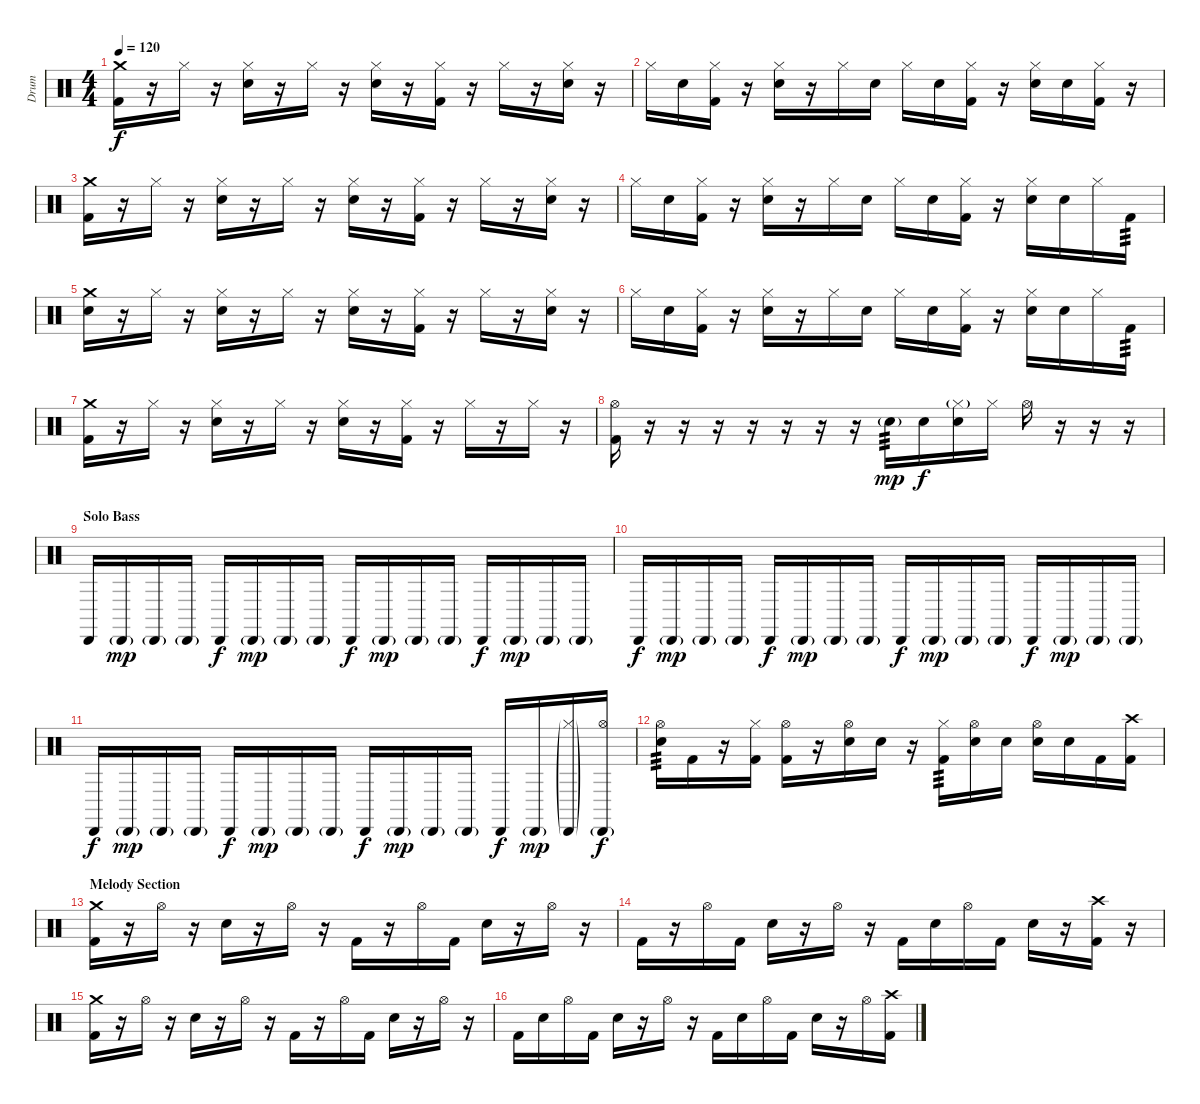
\track ("Drum" "Drum") {instrument percussion}
\staff {score}
\articulation defaults
\ts (4 4)
\tempo 120
\clef neutral
\ks c
("Crash medium (hit)" "Kick (hit) 2").16{dy f} r.16 "Hi-Hat (closed)".16 r.16 ("Hi-Hat (closed)" "Snare (hit) 2").16 r.16 "Hi-Hat (closed)".16 r.16 ("Hi-Hat (closed)" "Snare (hit) 2").16 r.16 ("Hi-Hat (closed)" "Kick (hit) 2").16 r.16 "Hi-Hat (closed)".16 r.16 ("Hi-Hat (closed)" "Snare (hit) 2").16 r.16 |
"Hi-Hat (closed)".16 "Snare (hit) 2".16 ("Hi-Hat (closed)" "Kick (hit) 2").16 r.16 ("Hi-Hat (closed)" "Snare (hit) 2").16 r.16 "Hi-Hat (closed)".16 "Snare (hit) 2".16 "Hi-Hat (closed)".16 "Snare (hit) 2".16 ("Hi-Hat (closed)" "Kick (hit) 2").16 r.16 ("Hi-Hat (closed)" "Snare (hit) 2").16 "Snare (hit) 2".16 ("Hi-Hat (closed)" "Kick (hit) 2").16 r.16 |
("Crash medium (hit)" "Kick (hit) 2").16 r.16 "Hi-Hat (closed)".16 r.16 ("Hi-Hat (closed)" "Snare (hit) 2").16 r.16 "Hi-Hat (closed)".16 r.16 ("Hi-Hat (closed)" "Snare (hit) 2").16 r.16 ("Hi-Hat (closed)" "Kick (hit) 2").16 r.16 "Hi-Hat (closed)".16 r.16 ("Hi-Hat (closed)" "Snare (hit) 2").16 r.16 |
"Hi-Hat (closed)".16 "Snare (hit) 2".16 ("Hi-Hat (closed)" "Kick (hit) 2").16 r.16 ("Hi-Hat (closed)" "Snare (hit) 2").16 r.16 "Hi-Hat (closed)".16 "Snare (hit) 2".16 "Hi-Hat (closed)".16 "Snare (hit) 2".16 ("Hi-Hat (closed)" "Kick (hit) 2").16 r.16 ("Hi-Hat (closed)" "Snare (hit) 2").16 "Snare (hit) 2".16 "Hi-Hat (closed)".16 "Kick (hit) 2".16{tp 3} |
("Crash medium (hit)" "Snare (hit) 2").16 r.16 "Hi-Hat (closed)".16 r.16 ("Hi-Hat (closed)" "Snare (hit) 2").16 r.16 "Hi-Hat (closed)".16 r.16 ("Hi-Hat (closed)" "Snare (hit) 2").16 r.16 ("Hi-Hat (closed)" "Kick (hit) 2").16 r.16 "Hi-Hat (closed)".16 r.16 ("Hi-Hat (closed)" "Snare (hit) 2").16 r.16 |
"Hi-Hat (closed)".16 "Snare (hit) 2".16 ("Hi-Hat (closed)" "Kick (hit) 2").16 r.16 ("Hi-Hat (closed)" "Snare (hit) 2").16 r.16 "Hi-Hat (closed)".16 "Snare (hit) 2".16 "Hi-Hat (closed)".16 "Snare (hit) 2".16 ("Hi-Hat (closed)" "Kick (hit) 2").16 r.16 ("Hi-Hat (closed)" "Snare (hit) 2").16 "Snare (hit) 2".16 "Hi-Hat (closed)".16 "Kick (hit) 2".16{tp 3} |
("Crash medium (hit)" "Kick (hit) 2").16 r.16 "Hi-Hat (closed)".16 r.16 ("Hi-Hat (closed)" "Snare (hit) 2").16 r.16 "Hi-Hat (closed)".16 r.16 ("Hi-Hat (closed)" "Snare (hit) 2").16 r.16 ("Hi-Hat (closed)" "Kick (hit) 2").16 r.16 "Hi-Hat (closed)".16 r.16 "Hi-Hat (closed)".16 r.16 |
("Hi-Hat (open)" "Kick (hit) 2").16 r.16 r.16 r.16 r.16 r.16 r.16 r.16 "Snare (hit) 2"{g}.16{tp 3 dy mp} "Snare (hit) 2".16{dy f} ("Hi-Hat (closed)"{g} "Snare (hit) 2").16 "Hi-Hat (closed)".16 "Hi-Hat (open)".16 r.16 r.16 r.16 |
\section ("" "Solo Bass")
"Cabasa (hit)".16 "Cabasa (hit)"{g}.16{dy mp} "Cabasa (hit)"{g}.16 "Cabasa (hit)"{g}.16 "Cabasa (hit)".16{dy f} "Cabasa (hit)"{g}.16{dy mp} "Cabasa (hit)"{g}.16 "Cabasa (hit)"{g}.16 "Cabasa (hit)".16{dy f} "Cabasa (hit)"{g}.16{dy mp} "Cabasa (hit)"{g}.16 "Cabasa (hit)"{g}.16 "Cabasa (hit)".16{dy f} "Cabasa (hit)"{g}.16{dy mp} "Cabasa (hit)"{g}.16 "Cabasa (hit)"{g}.16 |
"Cabasa (hit)".16{dy f} "Cabasa (hit)"{g}.16{dy mp} "Cabasa (hit)"{g}.16 "Cabasa (hit)"{g}.16 "Cabasa (hit)".16{dy f} "Cabasa (hit)"{g}.16{dy mp} "Cabasa (hit)"{g}.16 "Cabasa (hit)"{g}.16 "Cabasa (hit)".16{dy f} "Cabasa (hit)"{g}.16{dy mp} "Cabasa (hit)"{g}.16 "Cabasa (hit)"{g}.16 "Cabasa (hit)".16{dy f} "Cabasa (hit)"{g}.16{dy mp} "Cabasa (hit)"{g}.16 "Cabasa (hit)"{g}.16 |
"Cabasa (hit)".16{dy f} "Cabasa (hit)"{g}.16{dy mp} "Cabasa (hit)"{g}.16 "Cabasa (hit)"{g}.16 "Cabasa (hit)".16{dy f} "Cabasa (hit)"{g}.16{dy mp} "Cabasa (hit)"{g}.16 "Cabasa (hit)"{g}.16 "Cabasa (hit)".16{dy f} "Cabasa (hit)"{g}.16{dy mp} "Cabasa (hit)"{g}.16 "Cabasa (hit)"{g}.16 "Cabasa (hit)".16{dy f} "Cabasa (hit)"{g}.16{dy mp} ("Cabasa (hit)"{g} "Hi-Hat (closed)"{g}).16 ("Cabasa (hit)"{g} "Hi-Hat (open)").16{dy f} |
("Hi-Hat (open)" "Snare (hit) 2").16{tp 3} "Kick (hit) 2".16 r.16 ("Hi-Hat (closed)" "Kick (hit) 2").16 ("Hi-Hat (open)" "Kick (hit) 2").16 r.16 ("Hi-Hat (open)" "Snare (hit) 2").16 "Snare (hit) 2".16 r.16 ("Hi-Hat (closed)" "Kick (hit) 2").16{tp 3} ("Hi-Hat (open)" "Snare (hit) 2").16 "Snare (hit) 2".16 ("Hi-Hat (open)" "Snare (hit) 2").16 "Snare (hit) 2".16 "Kick (hit) 2".16 ("Crash high (hit)" "Kick (hit) 2").16 |
\section ("" "Melody Section")
("Crash medium (hit)" "Kick (hit) 2").16 r.16 "Hi-Hat (open)".16 r.16 "Snare (hit) 2".16 r.16 "Hi-Hat (open)".16 r.16 "Kick (hit) 2".16 r.16 "Hi-Hat (open)".16 "Kick (hit) 2".16 "Snare (hit) 2".16 r.16 "Hi-Hat (open)".16 r.16 |
"Kick (hit) 2".16 r.16 "Hi-Hat (open)".16 "Kick (hit) 2".16 "Snare (hit) 2".16 r.16 "Hi-Hat (open)".16 r.16 "Kick (hit) 2".16 "Snare (hit) 2".16 "Hi-Hat (open)".16 "Kick (hit) 2".16 "Snare (hit) 2".16 r.16 ("Crash high (hit)" "Kick (hit) 2").16 r.16 |
("Crash medium (hit)" "Kick (hit) 2").16 r.16 "Hi-Hat (open)".16 r.16 "Snare (hit) 2".16 r.16 "Hi-Hat (open)".16 r.16 "Kick (hit) 2".16 r.16 "Hi-Hat (open)".16 "Kick (hit) 2".16 "Snare (hit) 2".16 r.16 "Hi-Hat (open)".16 r.16 |
"Kick (hit) 2".16 "Snare (hit) 2".16 "Hi-Hat (open)".16 "Kick (hit) 2".16 "Snare (hit) 2".16 r.16 "Hi-Hat (open)".16 r.16 "Kick (hit) 2".16 "Snare (hit) 2".16 "Hi-Hat (open)".16 "Kick (hit) 2".16 "Snare (hit) 2".16 r.16 "Hi-Hat (open)".16 ("Crash high (hit)" "Kick (hit) 2").16
